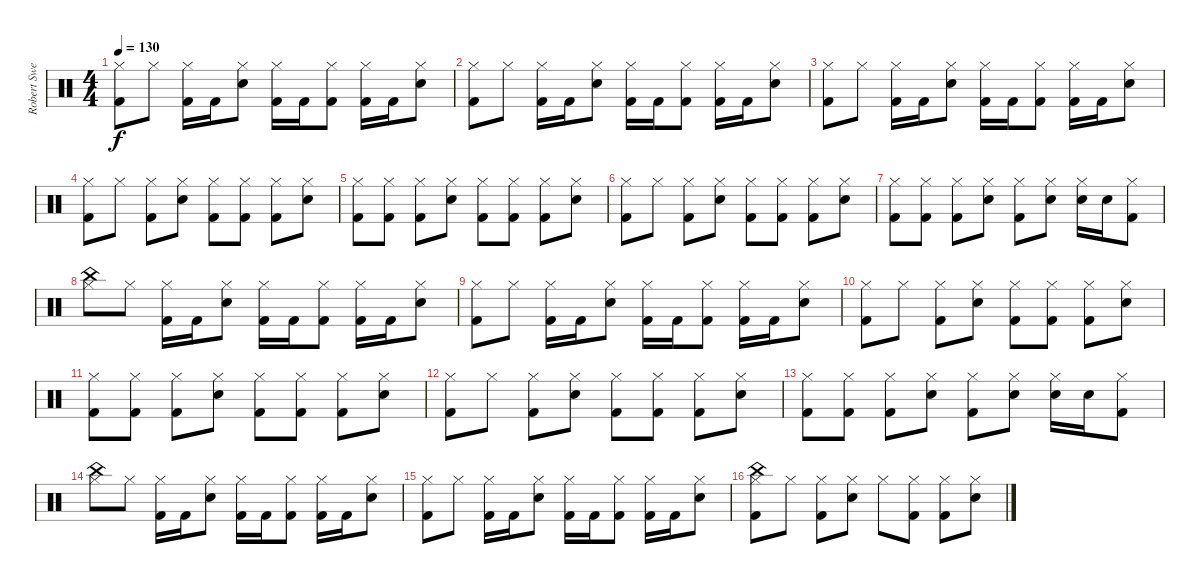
\track ("Robert Sweet" "Robert Swe") {instrument percussion}
\staff {score}
\articulation defaults
\ts (4 4)
\tempo 130
\clef neutral
\ks c
("Hi-Hat (closed)" "Kick (hit) 2").8{dy f} "Hi-Hat (closed)".8 ("Hi-Hat (closed)" "Kick (hit) 2").16 "Kick (hit) 2".16 ("Hi-Hat (closed)" "Snare (hit) 2").8 ("Hi-Hat (closed)" "Kick (hit) 2").16 "Kick (hit) 2".16 ("Hi-Hat (closed)" "Kick (hit) 2").8 ("Hi-Hat (closed)" "Kick (hit) 2").16 "Kick (hit) 2".16 ("Hi-Hat (closed)" "Snare (hit) 2").8 |
("Hi-Hat (closed)" "Kick (hit) 2").8 "Hi-Hat (closed)".8 ("Hi-Hat (closed)" "Kick (hit) 2").16 "Kick (hit) 2".16 ("Hi-Hat (closed)" "Snare (hit) 2").8 ("Hi-Hat (closed)" "Kick (hit) 2").16 "Kick (hit) 2".16 ("Hi-Hat (closed)" "Kick (hit) 2").8 ("Hi-Hat (closed)" "Kick (hit) 2").16 "Kick (hit) 2".16 ("Hi-Hat (closed)" "Snare (hit) 2").8 |
("Hi-Hat (closed)" "Kick (hit) 2").8 "Hi-Hat (closed)".8 ("Hi-Hat (closed)" "Kick (hit) 2").16 "Kick (hit) 2".16 ("Hi-Hat (closed)" "Snare (hit) 2").8 ("Hi-Hat (closed)" "Kick (hit) 2").16 "Kick (hit) 2".16 ("Hi-Hat (closed)" "Kick (hit) 2").8 ("Hi-Hat (closed)" "Kick (hit) 2").16 "Kick (hit) 2".16 ("Hi-Hat (closed)" "Snare (hit) 2").8 |
("Hi-Hat (closed)" "Kick (hit) 2").8 "Hi-Hat (closed)".8 ("Hi-Hat (closed)" "Kick (hit) 2").8 ("Hi-Hat (closed)" "Snare (hit) 2").8 ("Hi-Hat (closed)" "Kick (hit) 2").8 ("Hi-Hat (closed)" "Kick (hit) 2").8 ("Hi-Hat (closed)" "Kick (hit) 2").8 ("Hi-Hat (closed)" "Snare (hit) 2").8 |
("Hi-Hat (closed)" "Kick (hit) 2").8 ("Hi-Hat (closed)" "Kick (hit) 2").8 ("Hi-Hat (closed)" "Kick (hit) 2").8 ("Hi-Hat (closed)" "Snare (hit) 2").8 ("Hi-Hat (closed)" "Kick (hit) 2").8 ("Hi-Hat (closed)" "Kick (hit) 2").8 ("Hi-Hat (closed)" "Kick (hit) 2").8 ("Hi-Hat (closed)" "Snare (hit) 2").8 |
("Hi-Hat (closed)" "Kick (hit) 2").8 "Hi-Hat (closed)".8 ("Hi-Hat (closed)" "Kick (hit) 2").8 ("Hi-Hat (closed)" "Snare (hit) 2").8 ("Hi-Hat (closed)" "Kick (hit) 2").8 ("Hi-Hat (closed)" "Kick (hit) 2").8 ("Hi-Hat (closed)" "Kick (hit) 2").8 ("Hi-Hat (closed)" "Snare (hit) 2").8 |
("Hi-Hat (closed)" "Kick (hit) 2").8 ("Hi-Hat (closed)" "Kick (hit) 2").8 ("Hi-Hat (closed)" "Kick (hit) 2").8 ("Hi-Hat (closed)" "Snare (hit) 2").8 ("Hi-Hat (closed)" "Kick (hit) 2").8 ("Hi-Hat (closed)" "Snare (hit) 2").8 ("Hi-Hat (closed)" "Snare (hit) 2").16 "Snare (hit) 2".16 ("Hi-Hat (closed)" "Kick (hit) 2").8 |
("Hi-Hat (closed)" "China (hit)").8 "Hi-Hat (closed)".8 ("Hi-Hat (closed)" "Kick (hit) 2").16 "Kick (hit) 2".16 ("Hi-Hat (closed)" "Snare (hit) 2").8 ("Hi-Hat (closed)" "Kick (hit) 2").16 "Kick (hit) 2".16 ("Hi-Hat (closed)" "Kick (hit) 2").8 ("Hi-Hat (closed)" "Kick (hit) 2").16 "Kick (hit) 2".16 ("Hi-Hat (closed)" "Snare (hit) 2").8 |
("Hi-Hat (closed)" "Kick (hit) 2").8 "Hi-Hat (closed)".8 ("Hi-Hat (closed)" "Kick (hit) 2").16 "Kick (hit) 2".16 ("Hi-Hat (closed)" "Snare (hit) 2").8 ("Hi-Hat (closed)" "Kick (hit) 2").16 "Kick (hit) 2".16 ("Hi-Hat (closed)" "Kick (hit) 2").8 ("Hi-Hat (closed)" "Kick (hit) 2").16 "Kick (hit) 2".16 ("Hi-Hat (closed)" "Snare (hit) 2").8 |
("Hi-Hat (closed)" "Kick (hit) 2").8 "Hi-Hat (closed)".8 ("Hi-Hat (closed)" "Kick (hit) 2").8 ("Hi-Hat (closed)" "Snare (hit) 2").8 ("Hi-Hat (closed)" "Kick (hit) 2").8 ("Hi-Hat (closed)" "Kick (hit) 2").8 ("Hi-Hat (closed)" "Kick (hit) 2").8 ("Hi-Hat (closed)" "Snare (hit) 2").8 |
("Hi-Hat (closed)" "Kick (hit) 2").8 ("Hi-Hat (closed)" "Kick (hit) 2").8 ("Hi-Hat (closed)" "Kick (hit) 2").8 ("Hi-Hat (closed)" "Snare (hit) 2").8 ("Hi-Hat (closed)" "Kick (hit) 2").8 ("Hi-Hat (closed)" "Kick (hit) 2").8 ("Hi-Hat (closed)" "Kick (hit) 2").8 ("Hi-Hat (closed)" "Snare (hit) 2").8 |
("Hi-Hat (closed)" "Kick (hit) 2").8 "Hi-Hat (closed)".8 ("Hi-Hat (closed)" "Kick (hit) 2").8 ("Hi-Hat (closed)" "Snare (hit) 2").8 ("Hi-Hat (closed)" "Kick (hit) 2").8 ("Hi-Hat (closed)" "Kick (hit) 2").8 ("Hi-Hat (closed)" "Kick (hit) 2").8 ("Hi-Hat (closed)" "Snare (hit) 2").8 |
("Hi-Hat (closed)" "Kick (hit) 2").8 ("Hi-Hat (closed)" "Kick (hit) 2").8 ("Hi-Hat (closed)" "Kick (hit) 2").8 ("Hi-Hat (closed)" "Snare (hit) 2").8 ("Hi-Hat (closed)" "Kick (hit) 2").8 ("Hi-Hat (closed)" "Snare (hit) 2").8 ("Hi-Hat (closed)" "Snare (hit) 2").16 "Snare (hit) 2".16 ("Hi-Hat (closed)" "Kick (hit) 2").8 |
("Hi-Hat (closed)" "China (hit)").8 "Hi-Hat (closed)".8 ("Hi-Hat (closed)" "Kick (hit) 2").16 "Kick (hit) 2".16 ("Hi-Hat (closed)" "Snare (hit) 2").8 ("Hi-Hat (closed)" "Kick (hit) 2").16 "Kick (hit) 2".16 ("Hi-Hat (closed)" "Kick (hit) 2").8 ("Hi-Hat (closed)" "Kick (hit) 2").16 "Kick (hit) 2".16 ("Hi-Hat (closed)" "Snare (hit) 2").8 |
("Hi-Hat (closed)" "Kick (hit) 2").8 "Hi-Hat (closed)".8 ("Hi-Hat (closed)" "Kick (hit) 2").16 "Kick (hit) 2".16 ("Hi-Hat (closed)" "Snare (hit) 2").8 ("Hi-Hat (closed)" "Kick (hit) 2").16 "Kick (hit) 2".16 ("Hi-Hat (closed)" "Kick (hit) 2").8 ("Hi-Hat (closed)" "Kick (hit) 2").16 "Kick (hit) 2".16 ("Hi-Hat (closed)" "Snare (hit) 2").8 |
("Hi-Hat (closed)" "Kick (hit) 2" "China (hit)").8 "Hi-Hat (closed)".8 ("Hi-Hat (closed)" "Kick (hit) 2").8 ("Hi-Hat (closed)" "Snare (hit) 2").8 "Hi-Hat (closed)".8 ("Hi-Hat (closed)" "Kick (hit) 2").8 ("Hi-Hat (closed)" "Kick (hit) 2").8 ("Hi-Hat (closed)" "Snare (hit) 2").8
